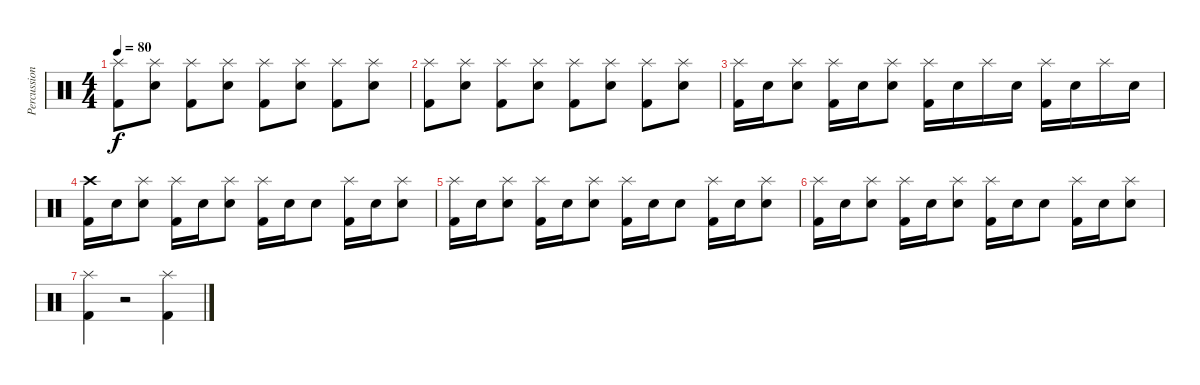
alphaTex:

\track ("Percussion" "Percussion") {instrument percussion}
\staff {score}
\articulation defaults
\ts (4 4)
\tempo 80
\clef neutral
\ks c
("Kick (hit) 2" "Splash (hit)").8{dy f} ("Snare (hit) 2" "Splash (hit)").8 ("Kick (hit) 2" "Splash (hit)").8 ("Snare (hit) 2" "Splash (hit)").8 ("Kick (hit) 2" "Splash (hit)").8 ("Snare (hit) 2" "Splash (hit)").8 ("Kick (hit) 2" "Splash (hit)").8 ("Snare (hit) 2" "Splash (hit)").8 |
("Kick (hit) 2" "Splash (hit)").8 ("Snare (hit) 2" "Splash (hit)").8 ("Kick (hit) 2" "Splash (hit)").8 ("Snare (hit) 2" "Splash (hit)").8 ("Kick (hit) 2" "Splash (hit)").8 ("Snare (hit) 2" "Splash (hit)").8 ("Kick (hit) 2" "Splash (hit)").8 ("Snare (hit) 2" "Splash (hit)").8 |
("Kick (hit) 2" "Splash (hit)").16 "Snare (hit) 2".16 ("Snare (hit) 2" "Splash (hit)").8 ("Kick (hit) 2" "Splash (hit)").16 "Snare (hit) 2".16 ("Snare (hit) 2" "Splash (hit)").8 ("Kick (hit) 2" "Splash (hit)").16 "Snare (hit) 2".16 "Splash (hit)".16 "Snare (hit) 2".16 ("Kick (hit) 2" "Splash (hit)").16 "Snare (hit) 2".16 "Splash (hit)".16 "Snare (hit) 2".16 |
("Kick (hit) 2" "Crash high (hit)").16 "Snare (hit) 2".16 ("Snare (hit) 2" "Splash (hit)").8 ("Kick (hit) 2" "Splash (hit)").16 "Snare (hit) 2".16 ("Snare (hit) 2" "Splash (hit)").8 ("Kick (hit) 2" "Splash (hit)").16 "Snare (hit) 2".16 "Snare (hit) 2".8 ("Kick (hit) 2" "Splash (hit)").16 "Snare (hit) 2".16 ("Snare (hit) 2" "Splash (hit)").8 |
("Kick (hit) 2" "Splash (hit)").16 "Snare (hit) 2".16 ("Snare (hit) 2" "Splash (hit)").8 ("Kick (hit) 2" "Splash (hit)").16 "Snare (hit) 2".16 ("Snare (hit) 2" "Splash (hit)").8 ("Kick (hit) 2" "Splash (hit)").16 "Snare (hit) 2".16 "Snare (hit) 2".8 ("Kick (hit) 2" "Splash (hit)").16 "Snare (hit) 2".16 ("Snare (hit) 2" "Splash (hit)").8 |
("Kick (hit) 2" "Splash (hit)").16 "Snare (hit) 2".16 ("Snare (hit) 2" "Splash (hit)").8 ("Kick (hit) 2" "Splash (hit)").16 "Snare (hit) 2".16 ("Snare (hit) 2" "Splash (hit)").8 ("Kick (hit) 2" "Splash (hit)").16 "Snare (hit) 2".16 "Snare (hit) 2".8 ("Kick (hit) 2" "Splash (hit)").16 "Snare (hit) 2".16 ("Snare (hit) 2" "Splash (hit)").8 |
("Kick (hit) 2" "Splash (hit)").4 r.2 ("Kick (hit) 2" "Splash (hit)").4
